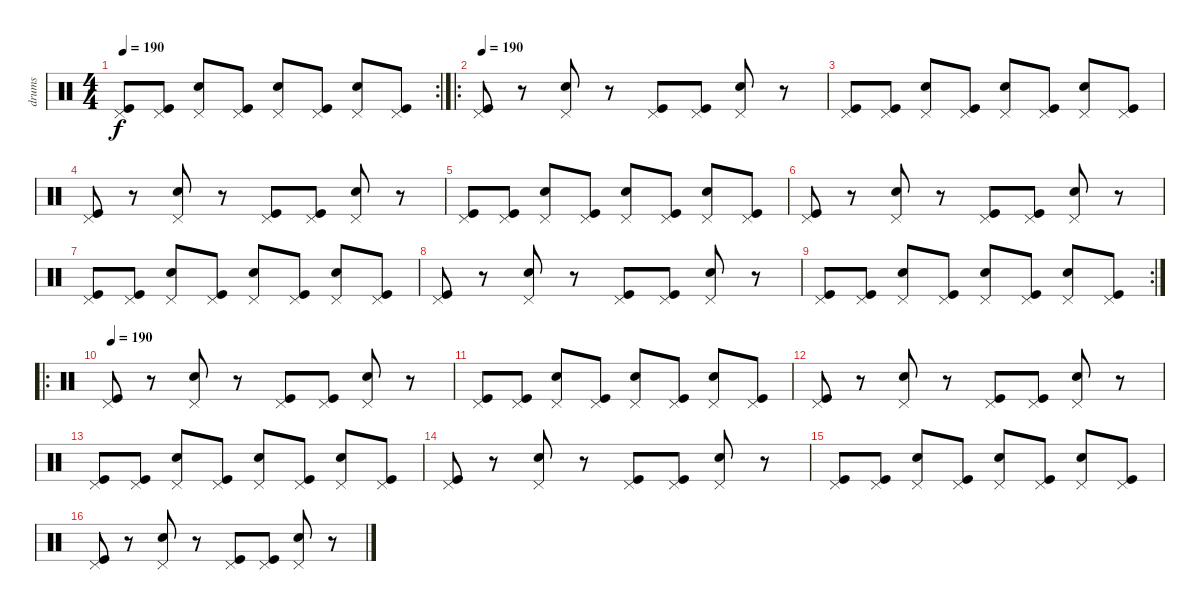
\track ("drums" "drums") {instrument percussion}
\staff {score}
\articulation defaults
\rc 2
\ts (4 4)
\tempo 190
\clef neutral
\ks c
("Pedal Hi-Hat (hit)" "Kick (hit)").8{dy f} ("Pedal Hi-Hat (hit)" "Kick (hit)").8 ("Pedal Hi-Hat (hit)" "Snare (hit) 2").8 ("Pedal Hi-Hat (hit)" "Kick (hit)").8 ("Pedal Hi-Hat (hit)" "Snare (hit) 2").8 ("Pedal Hi-Hat (hit)" "Kick (hit)").8 ("Pedal Hi-Hat (hit)" "Snare (hit) 2").8 ("Pedal Hi-Hat (hit)" "Kick (hit)").8 |
\ro
\tempo 190
("Pedal Hi-Hat (hit)" "Kick (hit)").8 r.8 ("Pedal Hi-Hat (hit)" "Snare (hit) 2").8 r.8 ("Pedal Hi-Hat (hit)" "Kick (hit)").8 ("Pedal Hi-Hat (hit)" "Kick (hit)").8 ("Pedal Hi-Hat (hit)" "Snare (hit) 2").8 r.8 |
("Pedal Hi-Hat (hit)" "Kick (hit)").8 ("Pedal Hi-Hat (hit)" "Kick (hit)").8 ("Pedal Hi-Hat (hit)" "Snare (hit) 2").8 ("Pedal Hi-Hat (hit)" "Kick (hit)").8 ("Pedal Hi-Hat (hit)" "Snare (hit) 2").8 ("Pedal Hi-Hat (hit)" "Kick (hit)").8 ("Pedal Hi-Hat (hit)" "Snare (hit) 2").8 ("Pedal Hi-Hat (hit)" "Kick (hit)").8 |
("Pedal Hi-Hat (hit)" "Kick (hit)").8 r.8 ("Pedal Hi-Hat (hit)" "Snare (hit) 2").8 r.8 ("Pedal Hi-Hat (hit)" "Kick (hit)").8 ("Pedal Hi-Hat (hit)" "Kick (hit)").8 ("Pedal Hi-Hat (hit)" "Snare (hit) 2").8 r.8 |
("Pedal Hi-Hat (hit)" "Kick (hit)").8 ("Pedal Hi-Hat (hit)" "Kick (hit)").8 ("Pedal Hi-Hat (hit)" "Snare (hit) 2").8 ("Pedal Hi-Hat (hit)" "Kick (hit)").8 ("Pedal Hi-Hat (hit)" "Snare (hit) 2").8 ("Pedal Hi-Hat (hit)" "Kick (hit)").8 ("Pedal Hi-Hat (hit)" "Snare (hit) 2").8 ("Pedal Hi-Hat (hit)" "Kick (hit)").8 |
("Pedal Hi-Hat (hit)" "Kick (hit)").8 r.8 ("Pedal Hi-Hat (hit)" "Snare (hit) 2").8 r.8 ("Pedal Hi-Hat (hit)" "Kick (hit)").8 ("Pedal Hi-Hat (hit)" "Kick (hit)").8 ("Pedal Hi-Hat (hit)" "Snare (hit) 2").8 r.8 |
("Pedal Hi-Hat (hit)" "Kick (hit)").8 ("Pedal Hi-Hat (hit)" "Kick (hit)").8 ("Pedal Hi-Hat (hit)" "Snare (hit) 2").8 ("Pedal Hi-Hat (hit)" "Kick (hit)").8 ("Pedal Hi-Hat (hit)" "Snare (hit) 2").8 ("Pedal Hi-Hat (hit)" "Kick (hit)").8 ("Pedal Hi-Hat (hit)" "Snare (hit) 2").8 ("Pedal Hi-Hat (hit)" "Kick (hit)").8 |
("Pedal Hi-Hat (hit)" "Kick (hit)").8 r.8 ("Pedal Hi-Hat (hit)" "Snare (hit) 2").8 r.8 ("Pedal Hi-Hat (hit)" "Kick (hit)").8 ("Pedal Hi-Hat (hit)" "Kick (hit)").8 ("Pedal Hi-Hat (hit)" "Snare (hit) 2").8 r.8 |
\rc 2
("Pedal Hi-Hat (hit)" "Kick (hit)").8 ("Pedal Hi-Hat (hit)" "Kick (hit)").8 ("Pedal Hi-Hat (hit)" "Snare (hit) 2").8 ("Pedal Hi-Hat (hit)" "Kick (hit)").8 ("Pedal Hi-Hat (hit)" "Snare (hit) 2").8 ("Pedal Hi-Hat (hit)" "Kick (hit)").8 ("Pedal Hi-Hat (hit)" "Snare (hit) 2").8 ("Pedal Hi-Hat (hit)" "Kick (hit)").8 |
\ro
\tempo 190
("Pedal Hi-Hat (hit)" "Kick (hit)").8 r.8 ("Pedal Hi-Hat (hit)" "Snare (hit) 2").8 r.8 ("Pedal Hi-Hat (hit)" "Kick (hit)").8 ("Pedal Hi-Hat (hit)" "Kick (hit)").8 ("Pedal Hi-Hat (hit)" "Snare (hit) 2").8 r.8 |
("Pedal Hi-Hat (hit)" "Kick (hit)").8 ("Pedal Hi-Hat (hit)" "Kick (hit)").8 ("Pedal Hi-Hat (hit)" "Snare (hit) 2").8 ("Pedal Hi-Hat (hit)" "Kick (hit)").8 ("Pedal Hi-Hat (hit)" "Snare (hit) 2").8 ("Pedal Hi-Hat (hit)" "Kick (hit)").8 ("Pedal Hi-Hat (hit)" "Snare (hit) 2").8 ("Pedal Hi-Hat (hit)" "Kick (hit)").8 |
("Pedal Hi-Hat (hit)" "Kick (hit)").8 r.8 ("Pedal Hi-Hat (hit)" "Snare (hit) 2").8 r.8 ("Pedal Hi-Hat (hit)" "Kick (hit)").8 ("Pedal Hi-Hat (hit)" "Kick (hit)").8 ("Pedal Hi-Hat (hit)" "Snare (hit) 2").8 r.8 |
("Pedal Hi-Hat (hit)" "Kick (hit)").8 ("Pedal Hi-Hat (hit)" "Kick (hit)").8 ("Pedal Hi-Hat (hit)" "Snare (hit) 2").8 ("Pedal Hi-Hat (hit)" "Kick (hit)").8 ("Pedal Hi-Hat (hit)" "Snare (hit) 2").8 ("Pedal Hi-Hat (hit)" "Kick (hit)").8 ("Pedal Hi-Hat (hit)" "Snare (hit) 2").8 ("Pedal Hi-Hat (hit)" "Kick (hit)").8 |
("Pedal Hi-Hat (hit)" "Kick (hit)").8 r.8 ("Pedal Hi-Hat (hit)" "Snare (hit) 2").8 r.8 ("Pedal Hi-Hat (hit)" "Kick (hit)").8 ("Pedal Hi-Hat (hit)" "Kick (hit)").8 ("Pedal Hi-Hat (hit)" "Snare (hit) 2").8 r.8 |
("Pedal Hi-Hat (hit)" "Kick (hit)").8 ("Pedal Hi-Hat (hit)" "Kick (hit)").8 ("Pedal Hi-Hat (hit)" "Snare (hit) 2").8 ("Pedal Hi-Hat (hit)" "Kick (hit)").8 ("Pedal Hi-Hat (hit)" "Snare (hit) 2").8 ("Pedal Hi-Hat (hit)" "Kick (hit)").8 ("Pedal Hi-Hat (hit)" "Snare (hit) 2").8 ("Pedal Hi-Hat (hit)" "Kick (hit)").8 |
("Pedal Hi-Hat (hit)" "Kick (hit)").8 r.8 ("Pedal Hi-Hat (hit)" "Snare (hit) 2").8 r.8 ("Pedal Hi-Hat (hit)" "Kick (hit)").8 ("Pedal Hi-Hat (hit)" "Kick (hit)").8 ("Pedal Hi-Hat (hit)" "Snare (hit) 2").8 r.8
